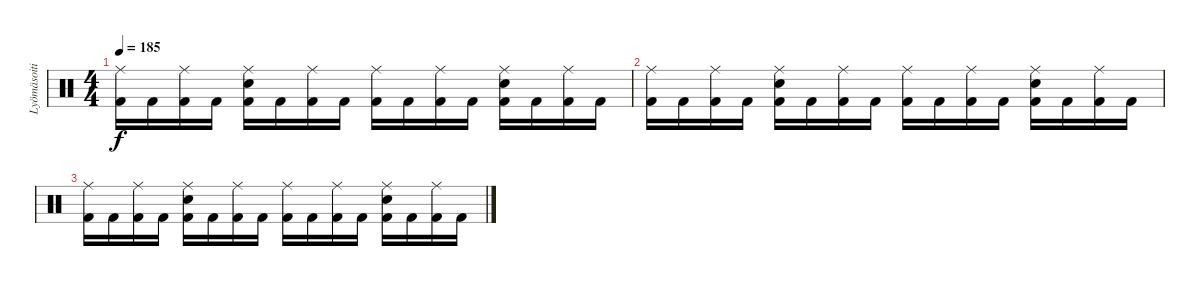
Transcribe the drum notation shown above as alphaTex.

\track ("Lyömäsoitin" "Lyömäsoiti") {instrument percussion}
\staff {score}
\articulation defaults
\ts (4 4)
\tempo 185
\clef neutral
\ks c
("Ride (middle)" "Kick (hit) 2").16{dy f volume 6} "Kick (hit) 2".16 ("Ride (middle)" "Kick (hit) 2").16 "Kick (hit) 2".16 ("Ride (middle)" "Electric Snare (hit)" "Kick (hit) 2").16 "Kick (hit) 2".16 ("Ride (middle)" "Kick (hit) 2").16 "Kick (hit) 2".16 ("Ride (middle)" "Kick (hit) 2").16 "Kick (hit) 2".16 ("Ride (middle)" "Kick (hit) 2").16 "Kick (hit) 2".16 ("Ride (middle)" "Electric Snare (hit)" "Kick (hit) 2").16 "Kick (hit) 2".16 ("Ride (middle)" "Kick (hit) 2").16 "Kick (hit) 2".16 |
("Ride (middle)" "Kick (hit) 2").16{volume 4} "Kick (hit) 2".16 ("Ride (middle)" "Kick (hit) 2").16 "Kick (hit) 2".16 ("Ride (middle)" "Electric Snare (hit)" "Kick (hit) 2").16 "Kick (hit) 2".16 ("Ride (middle)" "Kick (hit) 2").16 "Kick (hit) 2".16 ("Ride (middle)" "Kick (hit) 2").16 "Kick (hit) 2".16 ("Ride (middle)" "Kick (hit) 2").16 "Kick (hit) 2".16 ("Ride (middle)" "Electric Snare (hit)" "Kick (hit) 2").16 "Kick (hit) 2".16 ("Ride (middle)" "Kick (hit) 2").16 "Kick (hit) 2".16 |
("Ride (middle)" "Kick (hit) 2").16{volume 2} "Kick (hit) 2".16 ("Ride (middle)" "Kick (hit) 2").16 "Kick (hit) 2".16 ("Ride (middle)" "Electric Snare (hit)" "Kick (hit) 2").16 "Kick (hit) 2".16 ("Ride (middle)" "Kick (hit) 2").16 "Kick (hit) 2".16 ("Ride (middle)" "Kick (hit) 2").16 "Kick (hit) 2".16 ("Ride (middle)" "Kick (hit) 2").16 "Kick (hit) 2".16 ("Ride (middle)" "Electric Snare (hit)" "Kick (hit) 2").16 "Kick (hit) 2".16 ("Ride (middle)" "Kick (hit) 2").16 "Kick (hit) 2".16{volume 0}
